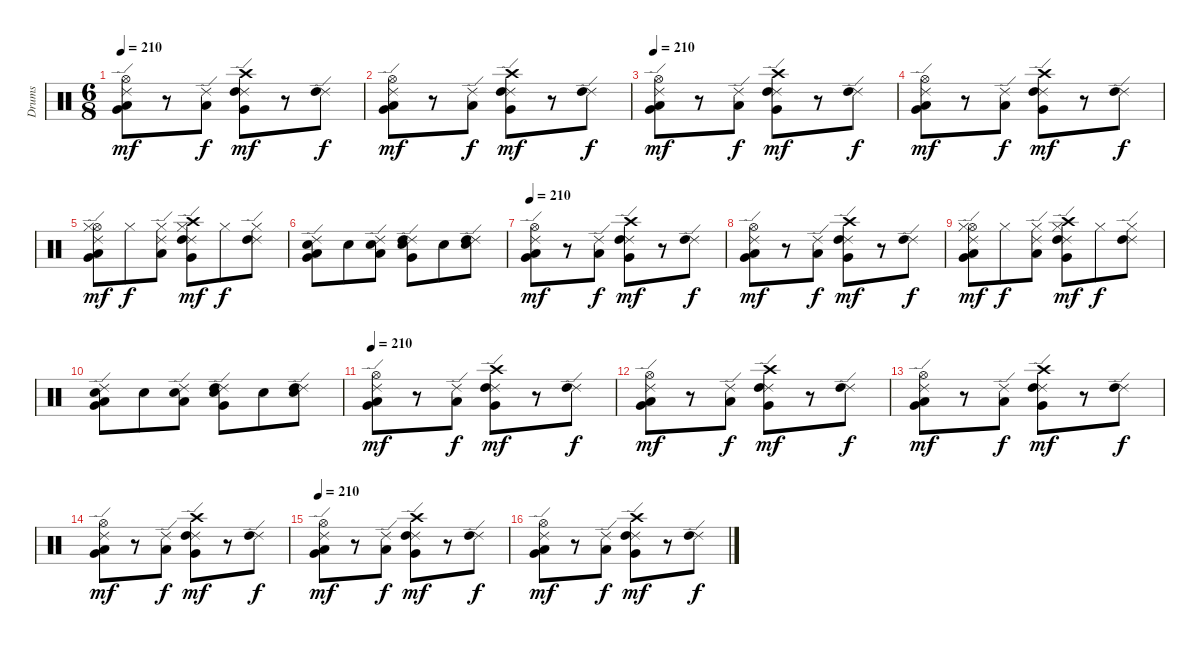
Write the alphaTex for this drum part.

\track ("Drums" "Drums") {instrument percussion}
\staff {score}
\articulation defaults
\ts (6 8)
\tempo 210
\clef neutral
\ks c
("Ride (edge) 2" "Hi-Hat (open)" "Low Tom (hit)" "Very Low Tom (hit)").8{dy mf} r.8 ("Ride (edge) 2" "Low Tom (hit)").8{dy f} ("Ride (edge) 2" "Crash high (hit)" "High Tom (hit)" "Very Low Tom (hit)").8{dy mf} r.8 ("Ride (edge) 2" "High Tom (hit)").8{dy f} |
("Ride (edge) 2" "Hi-Hat (open)" "Low Tom (hit)" "Very Low Tom (hit)").8{dy mf} r.8 ("Ride (edge) 2" "Low Tom (hit)").8{dy f} ("Ride (edge) 2" "Crash high (hit)" "High Tom (hit)" "Very Low Tom (hit)").8{dy mf} r.8 ("Ride (edge) 2" "High Tom (hit)").8{dy f} |
\tempo 210
("Ride (edge) 2" "Hi-Hat (open)" "Low Tom (hit)" "Very Low Tom (hit)").8{dy mf} r.8 ("Ride (edge) 2" "Low Tom (hit)").8{dy f} ("Ride (edge) 2" "Crash high (hit)" "High Tom (hit)" "Very Low Tom (hit)").8{dy mf} r.8 ("Ride (edge) 2" "High Tom (hit)").8{dy f} |
("Ride (edge) 2" "Hi-Hat (open)" "Low Tom (hit)" "Very Low Tom (hit)").8{dy mf} r.8 ("Ride (edge) 2" "Low Tom (hit)").8{dy f} ("Ride (edge) 2" "Crash high (hit)" "High Tom (hit)" "Very Low Tom (hit)").8{dy mf} r.8 ("Ride (edge) 2" "High Tom (hit)").8{dy f} |
("Ride (edge) 2" "Hi-Hat (open)" "Hi-Hat (closed)" "Low Tom (hit)" "Very Low Tom (hit)").8{dy mf} "Hi-Hat (closed)".8{dy f} ("Ride (edge) 2" "Hi-Hat (closed)" "Low Tom (hit)").8 ("Ride (edge) 2" "Crash high (hit)" "Hi-Hat (closed)" "High Tom (hit)" "Very Low Tom (hit)").8{dy mf} "Hi-Hat (closed)".8{dy f} ("Ride (edge) 2" "Hi-Hat (closed)" "High Tom (hit)").8 |
("Ride (edge) 2" "Electric Snare (hit)" "Low Tom (hit)" "Very Low Tom (hit)").8 "Electric Snare (hit)".8 ("Ride (edge) 2" "Electric Snare (hit)" "Low Tom (hit)").8 ("Ride (edge) 2" "Snare (hit) 2" "High Tom (hit)" "Very Low Tom (hit)").8 "Snare (hit) 2".8 ("Ride (edge) 2" "Snare (hit) 2" "High Tom (hit)").8 |
\tempo 210
("Ride (edge) 2" "Hi-Hat (open)" "Low Tom (hit)" "Very Low Tom (hit)").8{dy mf} r.8 ("Ride (edge) 2" "Low Tom (hit)").8{dy f} ("Ride (edge) 2" "Crash high (hit)" "High Tom (hit)" "Very Low Tom (hit)").8{dy mf} r.8 ("Ride (edge) 2" "High Tom (hit)").8{dy f} |
("Ride (edge) 2" "Hi-Hat (open)" "Low Tom (hit)" "Very Low Tom (hit)").8{dy mf} r.8 ("Ride (edge) 2" "Low Tom (hit)").8{dy f} ("Ride (edge) 2" "Crash high (hit)" "High Tom (hit)" "Very Low Tom (hit)").8{dy mf} r.8 ("Ride (edge) 2" "High Tom (hit)").8{dy f} |
("Ride (edge) 2" "Hi-Hat (open)" "Hi-Hat (closed)" "Low Tom (hit)" "Very Low Tom (hit)").8{dy mf} "Hi-Hat (closed)".8{dy f} ("Ride (edge) 2" "Hi-Hat (closed)" "Low Tom (hit)").8 ("Ride (edge) 2" "Crash high (hit)" "Hi-Hat (closed)" "High Tom (hit)" "Very Low Tom (hit)").8{dy mf} "Hi-Hat (closed)".8{dy f} ("Ride (edge) 2" "Hi-Hat (closed)" "High Tom (hit)").8 |
("Ride (edge) 2" "Electric Snare (hit)" "Low Tom (hit)" "Very Low Tom (hit)").8 "Electric Snare (hit)".8 ("Ride (edge) 2" "Electric Snare (hit)" "Low Tom (hit)").8 ("Ride (edge) 2" "Snare (hit) 2" "High Tom (hit)" "Very Low Tom (hit)").8 "Snare (hit) 2".8 ("Ride (edge) 2" "Snare (hit) 2" "High Tom (hit)").8 |
\tempo 210
("Ride (edge) 2" "Hi-Hat (open)" "Low Tom (hit)" "Very Low Tom (hit)").8{dy mf} r.8 ("Ride (edge) 2" "Low Tom (hit)").8{dy f} ("Ride (edge) 2" "Crash high (hit)" "High Tom (hit)" "Very Low Tom (hit)").8{dy mf} r.8 ("Ride (edge) 2" "High Tom (hit)").8{dy f} |
("Ride (edge) 2" "Hi-Hat (open)" "Low Tom (hit)" "Very Low Tom (hit)").8{dy mf} r.8 ("Ride (edge) 2" "Low Tom (hit)").8{dy f} ("Ride (edge) 2" "Crash high (hit)" "High Tom (hit)" "Very Low Tom (hit)").8{dy mf} r.8 ("Ride (edge) 2" "High Tom (hit)").8{dy f} |
("Ride (edge) 2" "Hi-Hat (open)" "Low Tom (hit)" "Very Low Tom (hit)").8{dy mf} r.8 ("Ride (edge) 2" "Low Tom (hit)").8{dy f} ("Ride (edge) 2" "Crash high (hit)" "High Tom (hit)" "Very Low Tom (hit)").8{dy mf} r.8 ("Ride (edge) 2" "High Tom (hit)").8{dy f} |
("Ride (edge) 2" "Hi-Hat (open)" "Low Tom (hit)" "Very Low Tom (hit)").8{dy mf} r.8 ("Ride (edge) 2" "Low Tom (hit)").8{dy f} ("Ride (edge) 2" "Crash high (hit)" "High Tom (hit)" "Very Low Tom (hit)").8{dy mf} r.8 ("Ride (edge) 2" "High Tom (hit)").8{dy f} |
\tempo 210
("Ride (edge) 2" "Hi-Hat (open)" "Low Tom (hit)" "Very Low Tom (hit)").8{dy mf} r.8 ("Ride (edge) 2" "Low Tom (hit)").8{dy f} ("Ride (edge) 2" "Crash high (hit)" "High Tom (hit)" "Very Low Tom (hit)").8{dy mf} r.8 ("Ride (edge) 2" "High Tom (hit)").8{dy f} |
("Ride (edge) 2" "Hi-Hat (open)" "Low Tom (hit)" "Very Low Tom (hit)").8{dy mf} r.8 ("Ride (edge) 2" "Low Tom (hit)").8{dy f} ("Ride (edge) 2" "Crash high (hit)" "High Tom (hit)" "Very Low Tom (hit)").8{dy mf} r.8 ("Ride (edge) 2" "High Tom (hit)").8{dy f}
